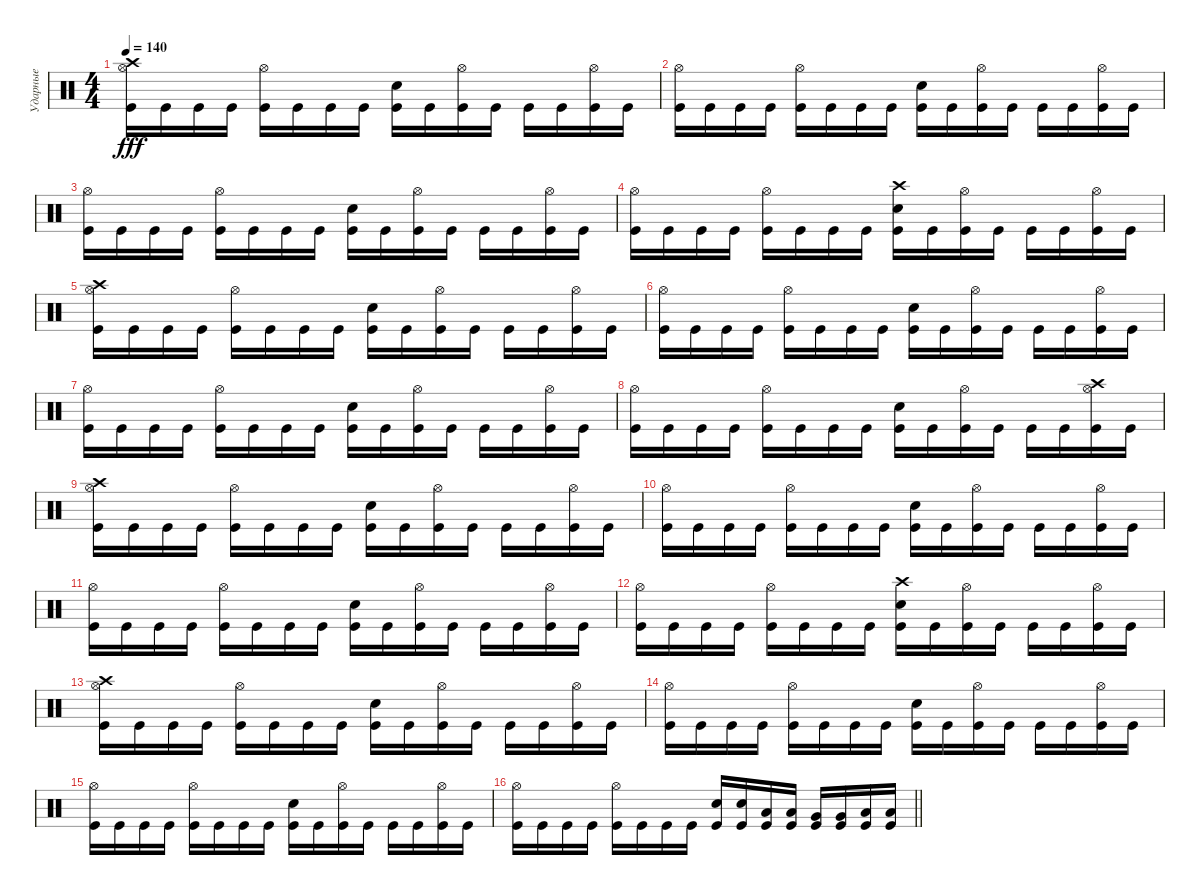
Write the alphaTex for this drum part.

\track ("Ударные" "Ударные") {instrument percussion}
\staff {score}
\articulation defaults
\ts (4 4)
\tempo 140
\clef neutral
\ks c
("Kick (hit)" "Hi-Hat (open)" "Crash high (hit)").16{dy fff} "Kick (hit)".16 "Kick (hit)".16 "Kick (hit)".16 ("Kick (hit)" "Hi-Hat (open)").16 "Kick (hit)".16 "Kick (hit)".16 "Kick (hit)".16 ("Kick (hit)" "Snare (hit) 2").16 "Kick (hit)".16 ("Kick (hit)" "Hi-Hat (open)").16 "Kick (hit)".16 "Kick (hit)".16 "Kick (hit)".16 ("Kick (hit)" "Hi-Hat (open)").16 "Kick (hit)".16 |
("Kick (hit)" "Hi-Hat (open)").16 "Kick (hit)".16 "Kick (hit)".16 "Kick (hit)".16 ("Kick (hit)" "Hi-Hat (open)").16 "Kick (hit)".16 "Kick (hit)".16 "Kick (hit)".16 ("Kick (hit)" "Snare (hit) 2").16 "Kick (hit)".16 ("Kick (hit)" "Hi-Hat (open)").16 "Kick (hit)".16 "Kick (hit)".16 "Kick (hit)".16 ("Kick (hit)" "Hi-Hat (open)").16 "Kick (hit)".16 |
("Kick (hit)" "Hi-Hat (open)").16 "Kick (hit)".16 "Kick (hit)".16 "Kick (hit)".16 ("Kick (hit)" "Hi-Hat (open)").16 "Kick (hit)".16 "Kick (hit)".16 "Kick (hit)".16 ("Kick (hit)" "Snare (hit) 2").16 "Kick (hit)".16 ("Kick (hit)" "Hi-Hat (open)").16 "Kick (hit)".16 "Kick (hit)".16 "Kick (hit)".16 ("Kick (hit)" "Hi-Hat (open)").16 "Kick (hit)".16 |
("Kick (hit)" "Hi-Hat (open)").16 "Kick (hit)".16 "Kick (hit)".16 "Kick (hit)".16 ("Kick (hit)" "Hi-Hat (open)").16 "Kick (hit)".16 "Kick (hit)".16 "Kick (hit)".16 ("Kick (hit)" "Snare (hit) 2" "Crash high (hit)").16 "Kick (hit)".16 ("Kick (hit)" "Hi-Hat (open)").16 "Kick (hit)".16 "Kick (hit)".16 "Kick (hit)".16 ("Kick (hit)" "Hi-Hat (open)").16 "Kick (hit)".16 |
("Kick (hit)" "Crash high (hit)" "Hi-Hat (open)").16 "Kick (hit)".16 "Kick (hit)".16 "Kick (hit)".16 ("Kick (hit)" "Hi-Hat (open)").16 "Kick (hit)".16 "Kick (hit)".16 "Kick (hit)".16 ("Kick (hit)" "Snare (hit) 2").16 "Kick (hit)".16 ("Kick (hit)" "Hi-Hat (open)").16 "Kick (hit)".16 "Kick (hit)".16 "Kick (hit)".16 ("Kick (hit)" "Hi-Hat (open)").16 "Kick (hit)".16 |
("Kick (hit)" "Hi-Hat (open)").16 "Kick (hit)".16 "Kick (hit)".16 "Kick (hit)".16 ("Kick (hit)" "Hi-Hat (open)").16 "Kick (hit)".16 "Kick (hit)".16 "Kick (hit)".16 ("Kick (hit)" "Snare (hit) 2").16 "Kick (hit)".16 ("Kick (hit)" "Hi-Hat (open)").16 "Kick (hit)".16 "Kick (hit)".16 "Kick (hit)".16 ("Kick (hit)" "Hi-Hat (open)").16 "Kick (hit)".16 |
("Kick (hit)" "Hi-Hat (open)").16 "Kick (hit)".16 "Kick (hit)".16 "Kick (hit)".16 ("Kick (hit)" "Hi-Hat (open)").16 "Kick (hit)".16 "Kick (hit)".16 "Kick (hit)".16 ("Kick (hit)" "Snare (hit) 2").16 "Kick (hit)".16 ("Kick (hit)" "Hi-Hat (open)").16 "Kick (hit)".16 "Kick (hit)".16 "Kick (hit)".16 ("Kick (hit)" "Hi-Hat (open)").16 "Kick (hit)".16 |
("Kick (hit)" "Hi-Hat (open)").16 "Kick (hit)".16 "Kick (hit)".16 "Kick (hit)".16 ("Kick (hit)" "Hi-Hat (open)").16 "Kick (hit)".16 "Kick (hit)".16 "Kick (hit)".16 ("Kick (hit)" "Snare (hit) 2").16 "Kick (hit)".16 ("Kick (hit)" "Hi-Hat (open)").16 "Kick (hit)".16 "Kick (hit)".16 "Kick (hit)".16 ("Kick (hit)" "Crash high (hit)" "Hi-Hat (open)").16 "Kick (hit)".16 |
("Kick (hit)" "Hi-Hat (open)" "Crash high (hit)").16 "Kick (hit)".16 "Kick (hit)".16 "Kick (hit)".16 ("Kick (hit)" "Hi-Hat (open)").16 "Kick (hit)".16 "Kick (hit)".16 "Kick (hit)".16 ("Kick (hit)" "Snare (hit) 2").16 "Kick (hit)".16 ("Kick (hit)" "Hi-Hat (open)").16 "Kick (hit)".16 "Kick (hit)".16 "Kick (hit)".16 ("Kick (hit)" "Hi-Hat (open)").16 "Kick (hit)".16 |
("Kick (hit)" "Hi-Hat (open)").16 "Kick (hit)".16 "Kick (hit)".16 "Kick (hit)".16 ("Kick (hit)" "Hi-Hat (open)").16 "Kick (hit)".16 "Kick (hit)".16 "Kick (hit)".16 ("Kick (hit)" "Snare (hit) 2").16 "Kick (hit)".16 ("Kick (hit)" "Hi-Hat (open)").16 "Kick (hit)".16 "Kick (hit)".16 "Kick (hit)".16 ("Kick (hit)" "Hi-Hat (open)").16 "Kick (hit)".16 |
("Kick (hit)" "Hi-Hat (open)").16 "Kick (hit)".16 "Kick (hit)".16 "Kick (hit)".16 ("Kick (hit)" "Hi-Hat (open)").16 "Kick (hit)".16 "Kick (hit)".16 "Kick (hit)".16 ("Kick (hit)" "Snare (hit) 2").16 "Kick (hit)".16 ("Kick (hit)" "Hi-Hat (open)").16 "Kick (hit)".16 "Kick (hit)".16 "Kick (hit)".16 ("Kick (hit)" "Hi-Hat (open)").16 "Kick (hit)".16 |
("Kick (hit)" "Hi-Hat (open)").16 "Kick (hit)".16 "Kick (hit)".16 "Kick (hit)".16 ("Kick (hit)" "Hi-Hat (open)").16 "Kick (hit)".16 "Kick (hit)".16 "Kick (hit)".16 ("Kick (hit)" "Snare (hit) 2" "Crash high (hit)").16 "Kick (hit)".16 ("Kick (hit)" "Hi-Hat (open)").16 "Kick (hit)".16 "Kick (hit)".16 "Kick (hit)".16 ("Kick (hit)" "Hi-Hat (open)").16 "Kick (hit)".16 |
("Kick (hit)" "Crash high (hit)" "Hi-Hat (open)").16 "Kick (hit)".16 "Kick (hit)".16 "Kick (hit)".16 ("Kick (hit)" "Hi-Hat (open)").16 "Kick (hit)".16 "Kick (hit)".16 "Kick (hit)".16 ("Kick (hit)" "Snare (hit) 2").16 "Kick (hit)".16 ("Kick (hit)" "Hi-Hat (open)").16 "Kick (hit)".16 "Kick (hit)".16 "Kick (hit)".16 ("Kick (hit)" "Hi-Hat (open)").16 "Kick (hit)".16 |
("Kick (hit)" "Hi-Hat (open)").16 "Kick (hit)".16 "Kick (hit)".16 "Kick (hit)".16 ("Kick (hit)" "Hi-Hat (open)").16 "Kick (hit)".16 "Kick (hit)".16 "Kick (hit)".16 ("Kick (hit)" "Snare (hit) 2").16 "Kick (hit)".16 ("Kick (hit)" "Hi-Hat (open)").16 "Kick (hit)".16 "Kick (hit)".16 "Kick (hit)".16 ("Kick (hit)" "Hi-Hat (open)").16 "Kick (hit)".16 |
("Kick (hit)" "Hi-Hat (open)").16 "Kick (hit)".16 "Kick (hit)".16 "Kick (hit)".16 ("Kick (hit)" "Hi-Hat (open)").16 "Kick (hit)".16 "Kick (hit)".16 "Kick (hit)".16 ("Kick (hit)" "Snare (hit) 2").16 "Kick (hit)".16 ("Kick (hit)" "Hi-Hat (open)").16 "Kick (hit)".16 "Kick (hit)".16 "Kick (hit)".16 ("Kick (hit)" "Hi-Hat (open)").16 "Kick (hit)".16 |
\barLineRight lightlight
("Kick (hit)" "Hi-Hat (open)").16 "Kick (hit)".16 "Kick (hit)".16 "Kick (hit)".16 ("Kick (hit)" "Hi-Hat (open)").16 "Kick (hit)".16 "Kick (hit)".16 "Kick (hit)".16 ("Kick (hit)" "Snare (hit) 2").16 ("Kick (hit)" "Snare (hit) 2").16 ("Kick (hit)" "Low Tom (hit)").16 ("Kick (hit)" "Low Tom (hit)").16 ("Kick (hit)" "Very Low Tom (hit)").16 ("Kick (hit)" "Very Low Tom (hit)").16 ("Kick (hit)" "Low Floor Tom (hit)").16 ("Kick (hit)" "Low Floor Tom (hit)").16
